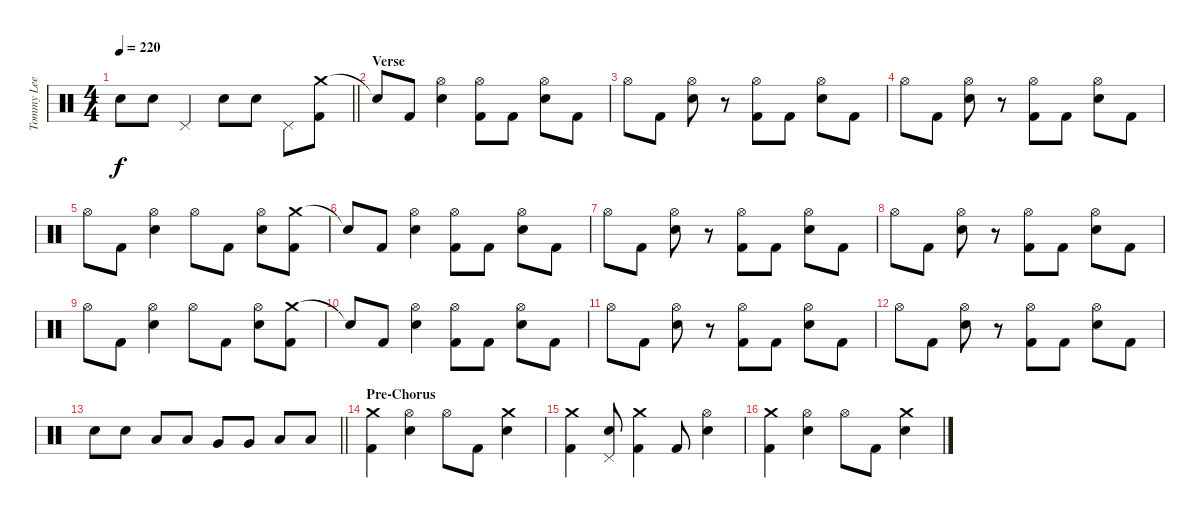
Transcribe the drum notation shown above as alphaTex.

\track ("Tommy Lee - Drums" "Tommy Lee ") {instrument percussion}
\staff {score}
\articulation defaults
\ts (4 4)
\tempo 220
\clef neutral
\barLineRight lightlight
\ks c "Electric Snare (hit)".8{dy f} "Electric Snare (hit)".8 "Pedal Hi-Hat (hit)".4 "Electric Snare (hit)".8 "Electric Snare (hit)".8 "Pedal Hi-Hat (hit)".8
("Crash medium (hit)" "Kick (hit) 2").8 |
\section ("" "Verse")
"Snare (hit)"{t}.8 "Kick (hit) 2".8 ("Hi-Hat (open)" "Electric Snare (hit)").4 ("Hi-Hat (open)" "Kick (hit) 2").8 "Kick (hit) 2".8 ("Hi-Hat (open)" "Electric Snare (hit)").8 "Kick (hit) 2".8 |
"Hi-Hat (open)".8 "Kick (hit) 2".8 ("Hi-Hat (open)" "Electric Snare (hit)").8 r.8 ("Hi-Hat (open)" "Kick (hit) 2").8 "Kick (hit) 2".8 ("Hi-Hat (open)" "Electric Snare (hit)").8 "Kick (hit) 2".8 |
"Hi-Hat (open)".8 "Kick (hit) 2".8 ("Hi-Hat (open)" "Electric Snare (hit)").8 r.8 ("Hi-Hat (open)" "Kick (hit) 2").8 "Kick (hit) 2".8 ("Hi-Hat (open)" "Electric Snare (hit)").8 "Kick (hit) 2".8 |
"Hi-Hat (open)".8 "Kick (hit) 2".8 ("Hi-Hat (open)" "Electric Snare (hit)").4 "Hi-Hat (open)".8 "Kick (hit) 2".8 ("Hi-Hat (open)" "Electric Snare (hit)").8 ("Crash medium (hit)" "Kick (hit) 2").8 |
"Snare (hit)"{t}.8 "Kick (hit) 2".8 ("Hi-Hat (open)" "Electric Snare (hit)").4 ("Hi-Hat (open)" "Kick (hit) 2").8 "Kick (hit) 2".8 ("Hi-Hat (open)" "Electric Snare (hit)").8 "Kick (hit) 2".8 |
"Hi-Hat (open)".8 "Kick (hit) 2".8 ("Hi-Hat (open)" "Electric Snare (hit)").8 r.8 ("Hi-Hat (open)" "Kick (hit) 2").8 "Kick (hit) 2".8 ("Hi-Hat (open)" "Electric Snare (hit)").8 "Kick (hit) 2".8 |
"Hi-Hat (open)".8 "Kick (hit) 2".8 ("Hi-Hat (open)" "Electric Snare (hit)").8 r.8 ("Hi-Hat (open)" "Kick (hit) 2").8 "Kick (hit) 2".8 ("Hi-Hat (open)" "Electric Snare (hit)").8 "Kick (hit) 2".8 |
"Hi-Hat (open)".8 "Kick (hit) 2".8 ("Hi-Hat (open)" "Electric Snare (hit)").4 "Hi-Hat (open)".8 "Kick (hit) 2".8 ("Hi-Hat (open)" "Electric Snare (hit)").8 ("Crash medium (hit)" "Kick (hit) 2").8 |
"Snare (hit)"{t}.8 "Kick (hit) 2".8 ("Hi-Hat (open)" "Electric Snare (hit)").4 ("Hi-Hat (open)" "Kick (hit) 2").8 "Kick (hit) 2".8 ("Hi-Hat (open)" "Electric Snare (hit)").8 "Kick (hit) 2".8 |
"Hi-Hat (open)".8 "Kick (hit) 2".8 ("Hi-Hat (open)" "Electric Snare (hit)").8 r.8 ("Hi-Hat (open)" "Kick (hit) 2").8 "Kick (hit) 2".8 ("Hi-Hat (open)" "Electric Snare (hit)").8 "Kick (hit) 2".8 |
"Hi-Hat (open)".8 "Kick (hit) 2".8 ("Hi-Hat (open)" "Electric Snare (hit)").8 r.8 ("Hi-Hat (open)" "Kick (hit) 2").8 "Kick (hit) 2".8 ("Hi-Hat (open)" "Electric Snare (hit)").8 "Kick (hit) 2".8 |
\barLineRight lightlight "Electric Snare (hit)".8 "Electric Snare (hit)".8 "Low Tom (hit)".8 "Low Tom (hit)".8 "Very Low Tom (hit)".8 "Very Low Tom (hit)".8 "Low Floor Tom (hit)".8 "Low Floor Tom (hit)".8
|
\section ("" "Pre-Chorus")
("Crash medium (hit)" "Kick (hit) 2").4 ("Hi-Hat (open)" "Electric Snare (hit)").4 "Hi-Hat (open)".8 "Kick (hit) 2".8 ("Crash medium (hit)" "Electric Snare (hit)").4 |
("Crash medium (hit)" "Kick (hit) 2").4 ("Pedal Hi-Hat (hit)" "Electric Snare (hit)").8 ("Crash medium (hit)" "Kick (hit) 2").4 "Kick (hit) 2".8 ("Hi-Hat (open)" "Electric Snare (hit)").4 |
("Crash medium (hit)" "Kick (hit) 2").4 ("Hi-Hat (open)" "Electric Snare (hit)").4 "Hi-Hat (open)".8 "Kick (hit) 2".8 ("Crash medium (hit)" "Electric Snare (hit)").4
